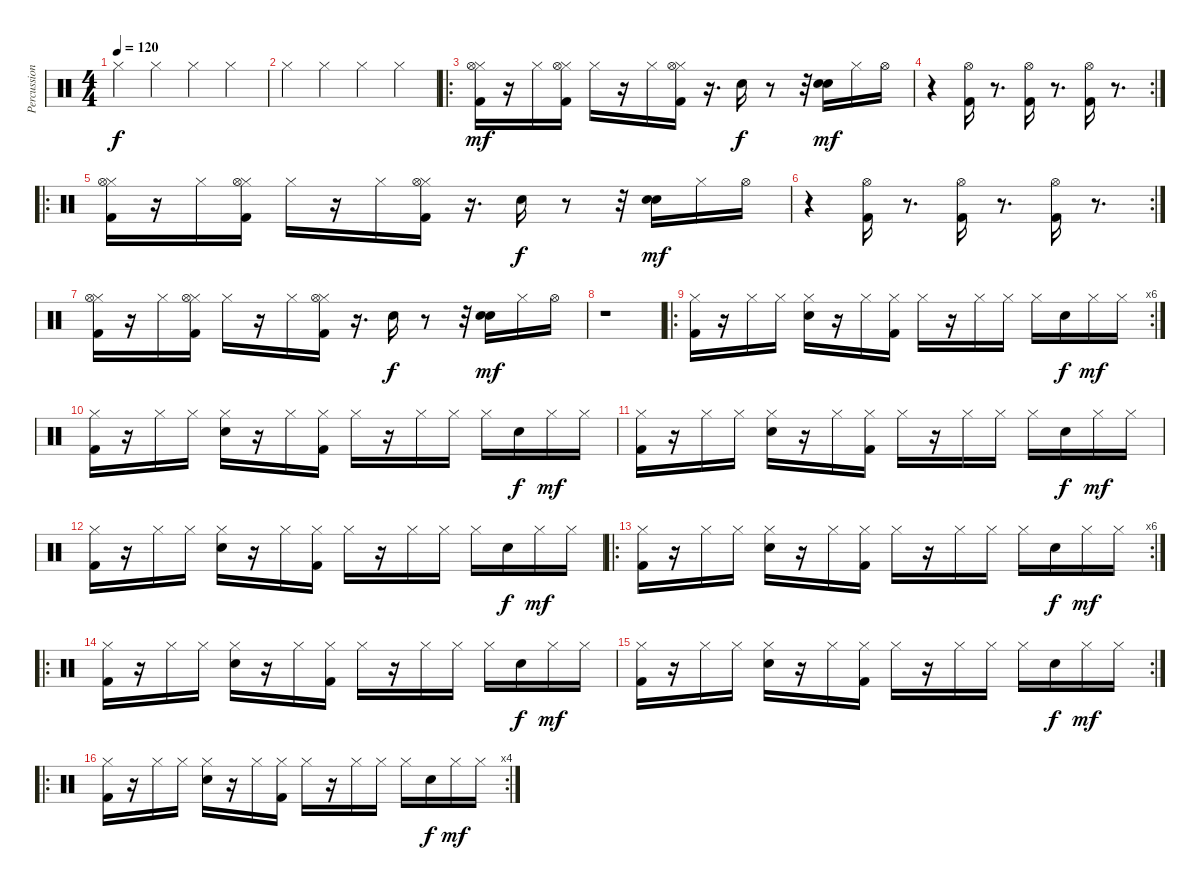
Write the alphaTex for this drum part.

\track ("Percussioni" "Percussion") {instrument percussion}
\staff {score}
\articulation defaults
\ts (4 4)
\tempo 120
\clef neutral
\ks c "Hi-Hat (closed)".4{dy f} "Hi-Hat (closed)".4 "Hi-Hat (closed)".4 "Hi-Hat (closed)".4
|
"Hi-Hat (closed)".4 "Hi-Hat (closed)".4 "Hi-Hat (closed)".4 "Hi-Hat (closed)".4 |
\ro
("Kick (hit) 2" "Hi-Hat (closed)" "Hi-Hat (open)").16{dy mf} r.16 "Hi-Hat (closed)".16 ("Kick (hit) 2" "Hi-Hat (closed)" "Hi-Hat (open)").16 "Hi-Hat (closed)".16 r.16 "Hi-Hat (closed)".16 ("Kick (hit) 2" "Hi-Hat (closed)" "Hi-Hat (open)").16 r.16{d} "Electric Snare (hit)".16{dy f} r.8 r.32 ("Electric Snare (hit)" "Electric Snare (hit)").16{dy mf} "Hi-Hat (closed)".16 "Hi-Hat (open)".16 |
\rc 2
r.4 ("Kick (hit) 2" "Hi-Hat (open)").16 r.8{d} ("Kick (hit) 2" "Hi-Hat (open)").16 r.8{d} ("Kick (hit) 2" "Hi-Hat (open)").16 r.8{d} |
\ro
("Kick (hit) 2" "Hi-Hat (closed)" "Hi-Hat (open)").16 r.16 "Hi-Hat (closed)".16 ("Kick (hit) 2" "Hi-Hat (closed)" "Hi-Hat (open)").16 "Hi-Hat (closed)".16 r.16 "Hi-Hat (closed)".16 ("Kick (hit) 2" "Hi-Hat (closed)" "Hi-Hat (open)").16 r.16{d} "Electric Snare (hit)".16{dy f} r.8 r.32 ("Electric Snare (hit)" "Electric Snare (hit)").16{dy mf} "Hi-Hat (closed)".16 "Hi-Hat (open)".16 |
\rc 2
r.4 ("Kick (hit) 2" "Hi-Hat (open)").16 r.8{d} ("Kick (hit) 2" "Hi-Hat (open)").16 r.8{d} ("Kick (hit) 2" "Hi-Hat (open)").16 r.8{d} |
("Kick (hit) 2" "Hi-Hat (closed)" "Hi-Hat (open)").16 r.16 "Hi-Hat (closed)".16 ("Kick (hit) 2" "Hi-Hat (closed)" "Hi-Hat (open)").16 "Hi-Hat (closed)".16 r.16 "Hi-Hat (closed)".16 ("Kick (hit) 2" "Hi-Hat (closed)" "Hi-Hat (open)").16 r.16{d} "Electric Snare (hit)".16{dy f} r.8 r.32 ("Electric Snare (hit)" "Electric Snare (hit)").16{dy mf} "Hi-Hat (closed)".16 "Hi-Hat (open)".16 |
r.1 |
\ro
\rc 6
("Kick (hit) 2" "Hi-Hat (closed)").16 r.16 "Hi-Hat (closed)".16 "Hi-Hat (closed)".16 ("Electric Snare (hit)" "Hi-Hat (closed)").16 r.16 "Hi-Hat (closed)".16 ("Kick (hit) 2" "Hi-Hat (closed)").16 "Hi-Hat (closed)".16 r.16 "Hi-Hat (closed)".16 "Hi-Hat (closed)".16 "Hi-Hat (closed)".16 "Electric Snare (hit)".16{dy f} "Hi-Hat (closed)".16{dy mf} "Hi-Hat (closed)".16 |
("Kick (hit) 2" "Hi-Hat (closed)").16 r.16 "Hi-Hat (closed)".16 "Hi-Hat (closed)".16 ("Electric Snare (hit)" "Hi-Hat (closed)").16 r.16 "Hi-Hat (closed)".16 ("Kick (hit) 2" "Hi-Hat (closed)").16 "Hi-Hat (closed)".16 r.16 "Hi-Hat (closed)".16 "Hi-Hat (closed)".16 "Hi-Hat (closed)".16 "Electric Snare (hit)".16{dy f} "Hi-Hat (closed)".16{dy mf} "Hi-Hat (closed)".16 |
("Kick (hit) 2" "Hi-Hat (closed)").16 r.16 "Hi-Hat (closed)".16 "Hi-Hat (closed)".16 ("Electric Snare (hit)" "Hi-Hat (closed)").16 r.16 "Hi-Hat (closed)".16 ("Kick (hit) 2" "Hi-Hat (closed)").16 "Hi-Hat (closed)".16 r.16 "Hi-Hat (closed)".16 "Hi-Hat (closed)".16 "Hi-Hat (closed)".16 "Electric Snare (hit)".16{dy f} "Hi-Hat (closed)".16{dy mf} "Hi-Hat (closed)".16 |
("Kick (hit) 2" "Hi-Hat (closed)").16 r.16 "Hi-Hat (closed)".16 "Hi-Hat (closed)".16 ("Electric Snare (hit)" "Hi-Hat (closed)").16 r.16 "Hi-Hat (closed)".16 ("Kick (hit) 2" "Hi-Hat (closed)").16 "Hi-Hat (closed)".16 r.16 "Hi-Hat (closed)".16 "Hi-Hat (closed)".16 "Hi-Hat (closed)".16 "Electric Snare (hit)".16{dy f} "Hi-Hat (closed)".16{dy mf} "Hi-Hat (closed)".16 |
\ro
\rc 6
("Kick (hit) 2" "Hi-Hat (closed)").16 r.16 "Hi-Hat (closed)".16 "Hi-Hat (closed)".16 ("Electric Snare (hit)" "Hi-Hat (closed)").16 r.16 "Hi-Hat (closed)".16 ("Kick (hit) 2" "Hi-Hat (closed)").16 "Hi-Hat (closed)".16 r.16 "Hi-Hat (closed)".16 "Hi-Hat (closed)".16 "Hi-Hat (closed)".16 "Electric Snare (hit)".16{dy f} "Hi-Hat (closed)".16{dy mf} "Hi-Hat (closed)".16 |
\ro
("Kick (hit) 2" "Hi-Hat (closed)").16 r.16 "Hi-Hat (closed)".16 "Hi-Hat (closed)".16 ("Electric Snare (hit)" "Hi-Hat (closed)").16 r.16 "Hi-Hat (closed)".16 ("Kick (hit) 2" "Hi-Hat (closed)").16 "Hi-Hat (closed)".16 r.16 "Hi-Hat (closed)".16 "Hi-Hat (closed)".16 "Hi-Hat (closed)".16 "Electric Snare (hit)".16{dy f} "Hi-Hat (closed)".16{dy mf} "Hi-Hat (closed)".16 |
\rc 2
("Kick (hit) 2" "Hi-Hat (closed)").16 r.16 "Hi-Hat (closed)".16 "Hi-Hat (closed)".16 ("Electric Snare (hit)" "Hi-Hat (closed)").16 r.16 "Hi-Hat (closed)".16 ("Kick (hit) 2" "Hi-Hat (closed)").16 "Hi-Hat (closed)".16 r.16 "Hi-Hat (closed)".16 "Hi-Hat (closed)".16 "Hi-Hat (closed)".16 "Electric Snare (hit)".16{dy f} "Hi-Hat (closed)".16{dy mf} "Hi-Hat (closed)".16 |
\ro
\rc 4
("Kick (hit) 2" "Hi-Hat (closed)").16 r.16 "Hi-Hat (closed)".16 "Hi-Hat (closed)".16 ("Electric Snare (hit)" "Hi-Hat (closed)").16 r.16 "Hi-Hat (closed)".16 ("Kick (hit) 2" "Hi-Hat (closed)").16 "Hi-Hat (closed)".16 r.16 "Hi-Hat (closed)".16 "Hi-Hat (closed)".16 "Hi-Hat (closed)".16 "Electric Snare (hit)".16{dy f} "Hi-Hat (closed)".16{dy mf} "Hi-Hat (closed)".16
